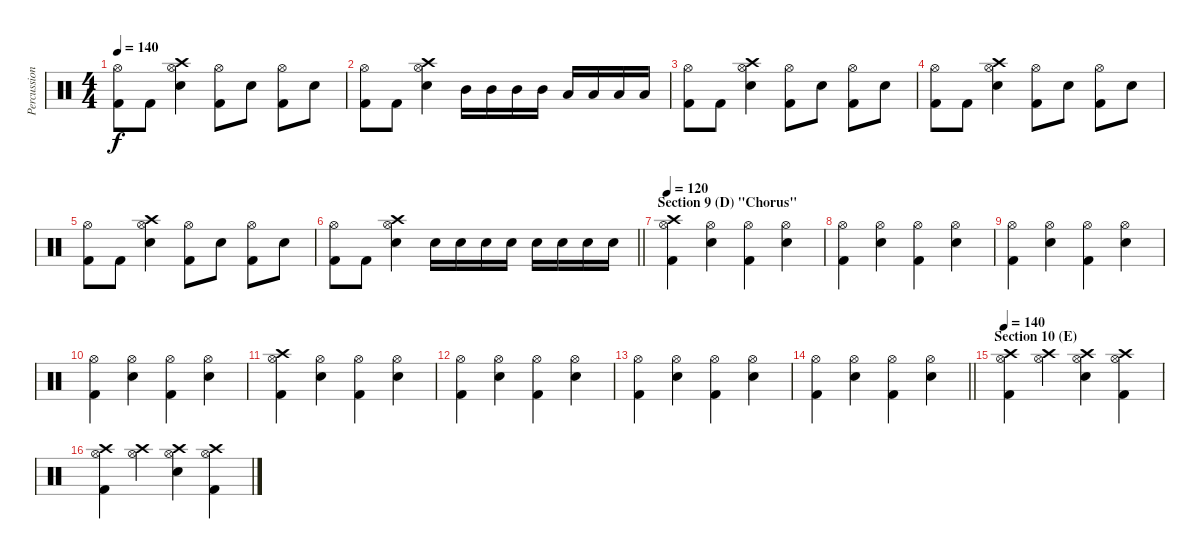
\track ("Percussion" "Percussion") {instrument percussion}
\staff {score}
\articulation defaults
\ts (4 4)
\tempo 140
\clef neutral
\ks c
("Hi-Hat (open)" "Kick (hit) 2").8{dy f} "Kick (hit) 2".8 ("Crash high (hit)" "Hi-Hat (open)" "Snare (hit) 2").4 ("Hi-Hat (open)" "Kick (hit) 2").8 "Snare (hit) 2".8 ("Hi-Hat (open)" "Kick (hit) 2").8 "Snare (hit) 2".8 |
("Hi-Hat (open)" "Kick (hit) 2").8 "Kick (hit) 2".8 ("Crash high (hit)" "Hi-Hat (open)" "Snare (hit) 2").4 "Mid Tom (hit)".16 "Mid Tom (hit)".16 "Mid Tom (hit)".16 "Mid Tom (hit)".16 "Low Tom (hit)".16 "Low Tom (hit)".16 "Low Tom (hit)".16 "Low Tom (hit)".16 |
("Hi-Hat (open)" "Kick (hit) 2").8 "Kick (hit) 2".8 ("Crash high (hit)" "Hi-Hat (open)" "Snare (hit) 2").4 ("Hi-Hat (open)" "Kick (hit) 2").8 "Snare (hit) 2".8 ("Hi-Hat (open)" "Kick (hit) 2").8 "Snare (hit) 2".8 |
("Hi-Hat (open)" "Kick (hit) 2").8 "Kick (hit) 2".8 ("Crash high (hit)" "Hi-Hat (open)" "Snare (hit) 2").4 ("Hi-Hat (open)" "Kick (hit) 2").8 "Snare (hit) 2".8 ("Hi-Hat (open)" "Kick (hit) 2").8 "Snare (hit) 2".8 |
("Hi-Hat (open)" "Kick (hit) 2").8 "Kick (hit) 2".8 ("Crash high (hit)" "Hi-Hat (open)" "Snare (hit) 2").4 ("Hi-Hat (open)" "Kick (hit) 2").8 "Snare (hit) 2".8 ("Hi-Hat (open)" "Kick (hit) 2").8 "Snare (hit) 2".8 |
\barLineRight lightlight
("Hi-Hat (open)" "Kick (hit) 2").8 "Kick (hit) 2".8 ("Crash high (hit)" "Hi-Hat (open)" "Snare (hit) 2").4 "Snare (hit) 2".16 "Snare (hit) 2".16 "Snare (hit) 2".16 "Snare (hit) 2".16 "Snare (hit) 2".16 "Snare (hit) 2".16 "Snare (hit) 2".16 "Snare (hit) 2".16 |
\section ("" "Section 9 (D) \"Chorus\"")
\tempo 116
\tempo 120
("Crash high (hit)" "Hi-Hat (open)" "Kick (hit) 2").4 ("Hi-Hat (open)" "Snare (hit) 2").4 ("Hi-Hat (open)" "Kick (hit) 2").4 ("Hi-Hat (open)" "Snare (hit) 2").4 |
("Hi-Hat (open)" "Kick (hit) 2").4 ("Hi-Hat (open)" "Snare (hit) 2").4 ("Hi-Hat (open)" "Kick (hit) 2").4 ("Hi-Hat (open)" "Snare (hit) 2").4 |
("Hi-Hat (open)" "Kick (hit) 2").4 ("Hi-Hat (open)" "Snare (hit) 2").4 ("Hi-Hat (open)" "Kick (hit) 2").4 ("Hi-Hat (open)" "Snare (hit) 2").4 |
("Hi-Hat (open)" "Kick (hit) 2").4 ("Hi-Hat (open)" "Snare (hit) 2").4 ("Hi-Hat (open)" "Kick (hit) 2").4 ("Hi-Hat (open)" "Snare (hit) 2").4 |
("Crash high (hit)" "Hi-Hat (open)" "Kick (hit) 2").4 ("Hi-Hat (open)" "Snare (hit) 2").4 ("Hi-Hat (open)" "Kick (hit) 2").4 ("Hi-Hat (open)" "Snare (hit) 2").4 |
("Hi-Hat (open)" "Kick (hit) 2").4 ("Hi-Hat (open)" "Snare (hit) 2").4 ("Hi-Hat (open)" "Kick (hit) 2").4 ("Hi-Hat (open)" "Snare (hit) 2").4 |
("Hi-Hat (open)" "Kick (hit) 2").4 ("Hi-Hat (open)" "Snare (hit) 2").4 ("Hi-Hat (open)" "Kick (hit) 2").4 ("Hi-Hat (open)" "Snare (hit) 2").4 |
\barLineRight lightlight
("Hi-Hat (open)" "Kick (hit) 2").4 ("Hi-Hat (open)" "Snare (hit) 2").4 ("Hi-Hat (open)" "Kick (hit) 2").4 ("Hi-Hat (open)" "Snare (hit) 2").4 |
\section ("" "Section 10 (E)")
\tempo 140
("Crash high (hit)" "Hi-Hat (open)" "Kick (hit) 2").4 ("Crash high (hit)" "Hi-Hat (open)").4 ("Crash high (hit)" "Hi-Hat (open)" "Snare (hit) 2").4 ("Crash high (hit)" "Hi-Hat (open)" "Kick (hit) 2").4 |
("Crash high (hit)" "Hi-Hat (open)" "Kick (hit) 2").4 ("Crash high (hit)" "Hi-Hat (open)").4 ("Crash high (hit)" "Hi-Hat (open)" "Snare (hit) 2").4 ("Crash high (hit)" "Hi-Hat (open)" "Kick (hit) 2").4
